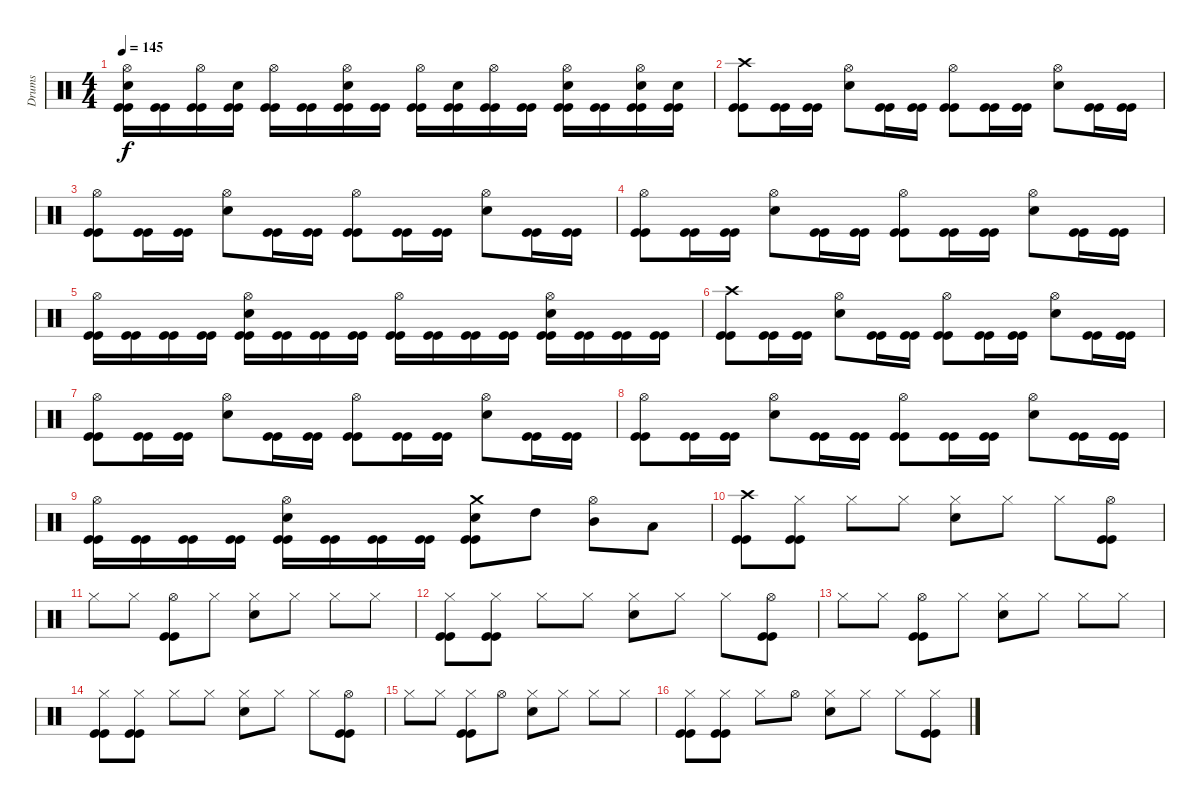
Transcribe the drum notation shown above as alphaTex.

\track ("Drums" "Drums") {instrument percussion}
\staff {score}
\articulation defaults
\ts (4 4)
\tempo 145
\clef neutral
\ks c
("Kick (hit)" "Kick (hit)" "Snare (hit) 2" "Hi-Hat (open)").16{dy f} ("Kick (hit)" "Kick (hit)").16 ("Kick (hit)" "Kick (hit)" "Hi-Hat (open)").16 ("Kick (hit)" "Kick (hit)" "Snare (hit) 2").16 ("Kick (hit)" "Kick (hit)" "Hi-Hat (open)").16 ("Kick (hit)" "Kick (hit)").16 ("Kick (hit)" "Kick (hit)" "Snare (hit) 2" "Hi-Hat (open)").16 ("Kick (hit)" "Kick (hit)").16 ("Kick (hit)" "Kick (hit)" "Hi-Hat (open)").16 ("Kick (hit)" "Kick (hit)" "Snare (hit) 2").16 ("Kick (hit)" "Kick (hit)" "Hi-Hat (open)").16 ("Kick (hit)" "Kick (hit)").16 ("Kick (hit)" "Kick (hit)" "Snare (hit) 2" "Hi-Hat (open)").16 ("Kick (hit)" "Kick (hit)").16 ("Kick (hit)" "Kick (hit)" "Snare (hit) 2" "Hi-Hat (open)").16 ("Kick (hit)" "Kick (hit)" "Snare (hit) 2").16 |
("Kick (hit)" "Kick (hit)" "Crash high (hit)").8 ("Kick (hit)" "Kick (hit)").16 ("Kick (hit)" "Kick (hit)").16 ("Snare (hit) 2" "Hi-Hat (open)").8 ("Kick (hit)" "Kick (hit)").16 ("Kick (hit)" "Kick (hit)").16 ("Kick (hit)" "Kick (hit)" "Hi-Hat (open)").8 ("Kick (hit)" "Kick (hit)").16 ("Kick (hit)" "Kick (hit)").16 ("Snare (hit) 2" "Hi-Hat (open)").8 ("Kick (hit)" "Kick (hit)").16 ("Kick (hit)" "Kick (hit)").16 |
("Kick (hit)" "Kick (hit)" "Hi-Hat (open)").8 ("Kick (hit)" "Kick (hit)").16 ("Kick (hit)" "Kick (hit)").16 ("Snare (hit) 2" "Hi-Hat (open)").8 ("Kick (hit)" "Kick (hit)").16 ("Kick (hit)" "Kick (hit)").16 ("Kick (hit)" "Kick (hit)" "Hi-Hat (open)").8 ("Kick (hit)" "Kick (hit)").16 ("Kick (hit)" "Kick (hit)").16 ("Snare (hit) 2" "Hi-Hat (open)").8 ("Kick (hit)" "Kick (hit)").16 ("Kick (hit)" "Kick (hit)").16 |
("Kick (hit)" "Kick (hit)" "Hi-Hat (open)").8 ("Kick (hit)" "Kick (hit)").16 ("Kick (hit)" "Kick (hit)").16 ("Snare (hit) 2" "Hi-Hat (open)").8 ("Kick (hit)" "Kick (hit)").16 ("Kick (hit)" "Kick (hit)").16 ("Kick (hit)" "Kick (hit)" "Hi-Hat (open)").8 ("Kick (hit)" "Kick (hit)").16 ("Kick (hit)" "Kick (hit)").16 ("Snare (hit) 2" "Hi-Hat (open)").8 ("Kick (hit)" "Kick (hit)").16 ("Kick (hit)" "Kick (hit)").16 |
("Kick (hit)" "Kick (hit)" "Hi-Hat (open)").16 ("Kick (hit)" "Kick (hit)").16 ("Kick (hit)" "Kick (hit)").16 ("Kick (hit)" "Kick (hit)").16 ("Kick (hit)" "Kick (hit)" "Snare (hit) 2" "Hi-Hat (open)").16 ("Kick (hit)" "Kick (hit)").16 ("Kick (hit)" "Kick (hit)").16 ("Kick (hit)" "Kick (hit)").16 ("Kick (hit)" "Kick (hit)" "Hi-Hat (open)").16 ("Kick (hit)" "Kick (hit)").16 ("Kick (hit)" "Kick (hit)").16 ("Kick (hit)" "Kick (hit)").16 ("Kick (hit)" "Kick (hit)" "Snare (hit) 2" "Hi-Hat (open)").16 ("Kick (hit)" "Kick (hit)").16 ("Kick (hit)" "Kick (hit)").16 ("Kick (hit)" "Kick (hit)").16 |
("Kick (hit)" "Kick (hit)" "Crash high (hit)").8 ("Kick (hit)" "Kick (hit)").16 ("Kick (hit)" "Kick (hit)").16 ("Snare (hit) 2" "Hi-Hat (open)").8 ("Kick (hit)" "Kick (hit)").16 ("Kick (hit)" "Kick (hit)").16 ("Kick (hit)" "Kick (hit)" "Hi-Hat (open)").8 ("Kick (hit)" "Kick (hit)").16 ("Kick (hit)" "Kick (hit)").16 ("Snare (hit) 2" "Hi-Hat (open)").8 ("Kick (hit)" "Kick (hit)").16 ("Kick (hit)" "Kick (hit)").16 |
("Kick (hit)" "Kick (hit)" "Hi-Hat (open)").8 ("Kick (hit)" "Kick (hit)").16 ("Kick (hit)" "Kick (hit)").16 ("Snare (hit) 2" "Hi-Hat (open)").8 ("Kick (hit)" "Kick (hit)").16 ("Kick (hit)" "Kick (hit)").16 ("Kick (hit)" "Kick (hit)" "Hi-Hat (open)").8 ("Kick (hit)" "Kick (hit)").16 ("Kick (hit)" "Kick (hit)").16 ("Snare (hit) 2" "Hi-Hat (open)").8 ("Kick (hit)" "Kick (hit)").16 ("Kick (hit)" "Kick (hit)").16 |
("Kick (hit)" "Kick (hit)" "Hi-Hat (open)").8 ("Kick (hit)" "Kick (hit)").16 ("Kick (hit)" "Kick (hit)").16 ("Snare (hit) 2" "Hi-Hat (open)").8 ("Kick (hit)" "Kick (hit)").16 ("Kick (hit)" "Kick (hit)").16 ("Kick (hit)" "Kick (hit)" "Hi-Hat (open)").8 ("Kick (hit)" "Kick (hit)").16 ("Kick (hit)" "Kick (hit)").16 ("Snare (hit) 2" "Hi-Hat (open)").8 ("Kick (hit)" "Kick (hit)").16 ("Kick (hit)" "Kick (hit)").16 |
("Kick (hit)" "Kick (hit)" "Hi-Hat (open)").16 ("Kick (hit)" "Kick (hit)").16 ("Kick (hit)" "Kick (hit)").16 ("Kick (hit)" "Kick (hit)").16 ("Kick (hit)" "Kick (hit)" "Snare (hit) 2" "Hi-Hat (open)").16 ("Kick (hit)" "Kick (hit)").16 ("Kick (hit)" "Kick (hit)").16 ("Kick (hit)" "Kick (hit)").16 ("Kick (hit)" "Kick (hit)" "Snare (hit) 2" "Crash medium (hit)").8 "High Tom (hit)".8 ("Mid Tom (hit)" "Hi-Hat (open)").8 "Low Tom (hit)".8 |
("Kick (hit)" "Kick (hit)" "Crash high (hit)").8 ("Kick (hit)" "Kick (hit)" "Hi-Hat (closed)").8 "Hi-Hat (closed)".8 "Hi-Hat (closed)".8 ("Snare (hit) 2" "Hi-Hat (closed)").8 "Hi-Hat (closed)".8 "Hi-Hat (closed)".8 ("Kick (hit)" "Kick (hit)" "Hi-Hat (open)").8 |
"Hi-Hat (closed)".8 "Hi-Hat (closed)".8 ("Kick (hit)" "Kick (hit)" "Hi-Hat (open)").8 "Hi-Hat (closed)".8 ("Snare (hit) 2" "Hi-Hat (closed)").8 "Hi-Hat (closed)".8 "Hi-Hat (closed)".8 "Hi-Hat (closed)".8 |
("Kick (hit)" "Kick (hit)" "Hi-Hat (closed)").8 ("Kick (hit)" "Kick (hit)" "Hi-Hat (closed)").8 "Hi-Hat (closed)".8 "Hi-Hat (closed)".8 ("Snare (hit) 2" "Hi-Hat (closed)").8 "Hi-Hat (closed)".8 "Hi-Hat (closed)".8 ("Kick (hit)" "Kick (hit)" "Hi-Hat (open)").8 |
"Hi-Hat (closed)".8 "Hi-Hat (closed)".8 ("Kick (hit)" "Kick (hit)" "Hi-Hat (open)").8 "Hi-Hat (closed)".8 ("Snare (hit) 2" "Hi-Hat (closed)").8 "Hi-Hat (closed)".8 "Hi-Hat (closed)".8 "Hi-Hat (closed)".8 |
("Kick (hit)" "Kick (hit)" "Hi-Hat (closed)").8 ("Kick (hit)" "Kick (hit)" "Hi-Hat (closed)").8 "Hi-Hat (closed)".8 "Hi-Hat (closed)".8 ("Snare (hit) 2" "Hi-Hat (closed)").8 "Hi-Hat (closed)".8 "Hi-Hat (closed)".8 ("Kick (hit)" "Kick (hit)" "Hi-Hat (open)").8 |
"Hi-Hat (closed)".8 "Hi-Hat (closed)".8 ("Kick (hit)" "Kick (hit)" "Hi-Hat (closed)").8 "Hi-Hat (open)".8 ("Snare (hit) 2" "Hi-Hat (closed)").8 "Hi-Hat (closed)".8 "Hi-Hat (closed)".8 "Hi-Hat (closed)".8 |
("Kick (hit)" "Kick (hit)" "Hi-Hat (closed)").8 ("Kick (hit)" "Kick (hit)" "Hi-Hat (closed)").8 "Hi-Hat (closed)".8 "Hi-Hat (open)".8 ("Snare (hit) 2" "Hi-Hat (closed)").8 "Hi-Hat (closed)".8 "Hi-Hat (closed)".8 ("Kick (hit)" "Kick (hit)" "Hi-Hat (closed)").8
